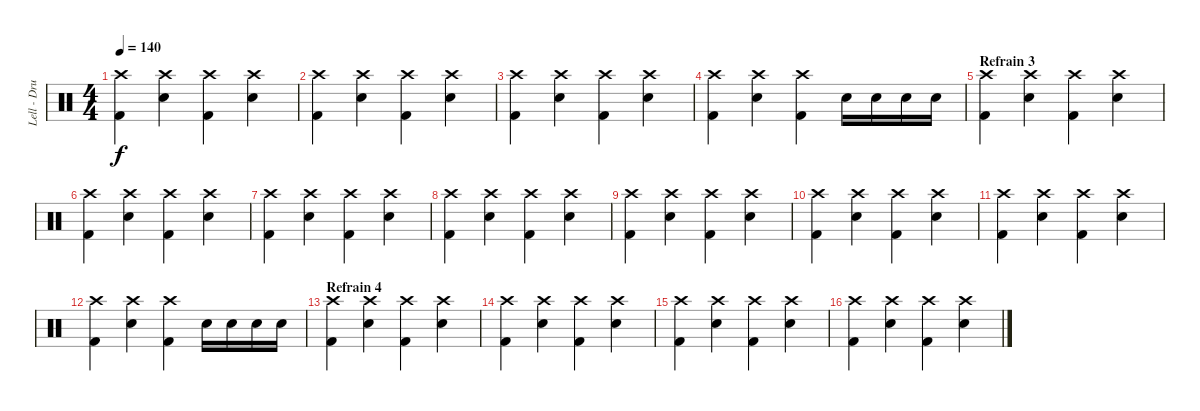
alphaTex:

\track ("Lell - Drums" "Lell - Dru") {instrument percussion}
\staff {score}
\articulation defaults
\ts (4 4)
\tempo 140
\clef neutral
\ks c
("Crash high (hit)" "Kick (hit) 2").4{dy f} ("Crash high (hit)" "Snare (hit) 2").4 ("Crash high (hit)" "Kick (hit) 2").4 ("Crash high (hit)" "Snare (hit) 2").4 |
("Crash high (hit)" "Kick (hit) 2").4 ("Crash high (hit)" "Snare (hit) 2").4 ("Crash high (hit)" "Kick (hit) 2").4 ("Crash high (hit)" "Snare (hit) 2").4 |
("Crash high (hit)" "Kick (hit) 2").4 ("Crash high (hit)" "Snare (hit) 2").4 ("Crash high (hit)" "Kick (hit) 2").4 ("Crash high (hit)" "Snare (hit) 2").4 |
("Crash high (hit)" "Kick (hit) 2").4 ("Crash high (hit)" "Snare (hit) 2").4 ("Crash high (hit)" "Kick (hit) 2").4 "Snare (hit) 2".16 "Snare (hit) 2".16 "Snare (hit) 2".16 "Snare (hit) 2".16 |
\section ("" "Refrain 3")
("Crash high (hit)" "Kick (hit) 2").4 ("Crash high (hit)" "Snare (hit) 2").4 ("Crash high (hit)" "Kick (hit) 2").4 ("Crash high (hit)" "Snare (hit) 2").4 |
("Crash high (hit)" "Kick (hit) 2").4 ("Crash high (hit)" "Snare (hit) 2").4 ("Crash high (hit)" "Kick (hit) 2").4 ("Crash high (hit)" "Snare (hit) 2").4 |
("Crash high (hit)" "Kick (hit) 2").4 ("Crash high (hit)" "Snare (hit) 2").4 ("Crash high (hit)" "Kick (hit) 2").4 ("Crash high (hit)" "Snare (hit) 2").4 |
("Crash high (hit)" "Kick (hit) 2").4 ("Crash high (hit)" "Snare (hit) 2").4 ("Crash high (hit)" "Kick (hit) 2").4 ("Crash high (hit)" "Snare (hit) 2").4 |
("Crash high (hit)" "Kick (hit) 2").4 ("Crash high (hit)" "Snare (hit) 2").4 ("Crash high (hit)" "Kick (hit) 2").4 ("Crash high (hit)" "Snare (hit) 2").4 |
("Crash high (hit)" "Kick (hit) 2").4 ("Crash high (hit)" "Snare (hit) 2").4 ("Crash high (hit)" "Kick (hit) 2").4 ("Crash high (hit)" "Snare (hit) 2").4 |
("Crash high (hit)" "Kick (hit) 2").4 ("Crash high (hit)" "Snare (hit) 2").4 ("Crash high (hit)" "Kick (hit) 2").4 ("Crash high (hit)" "Snare (hit) 2").4 |
("Crash high (hit)" "Kick (hit) 2").4 ("Crash high (hit)" "Snare (hit) 2").4 ("Crash high (hit)" "Kick (hit) 2").4 "Snare (hit) 2".16 "Snare (hit) 2".16 "Snare (hit) 2".16 "Snare (hit) 2".16 |
\section ("" "Refrain 4")
("Crash high (hit)" "Kick (hit) 2").4 ("Crash high (hit)" "Snare (hit) 2").4 ("Crash high (hit)" "Kick (hit) 2").4 ("Crash high (hit)" "Snare (hit) 2").4 |
("Crash high (hit)" "Kick (hit) 2").4 ("Crash high (hit)" "Snare (hit) 2").4 ("Crash high (hit)" "Kick (hit) 2").4 ("Crash high (hit)" "Snare (hit) 2").4 |
("Crash high (hit)" "Kick (hit) 2").4 ("Crash high (hit)" "Snare (hit) 2").4 ("Crash high (hit)" "Kick (hit) 2").4 ("Crash high (hit)" "Snare (hit) 2").4 |
("Crash high (hit)" "Kick (hit) 2").4 ("Crash high (hit)" "Snare (hit) 2").4 ("Crash high (hit)" "Kick (hit) 2").4 ("Crash high (hit)" "Snare (hit) 2").4
